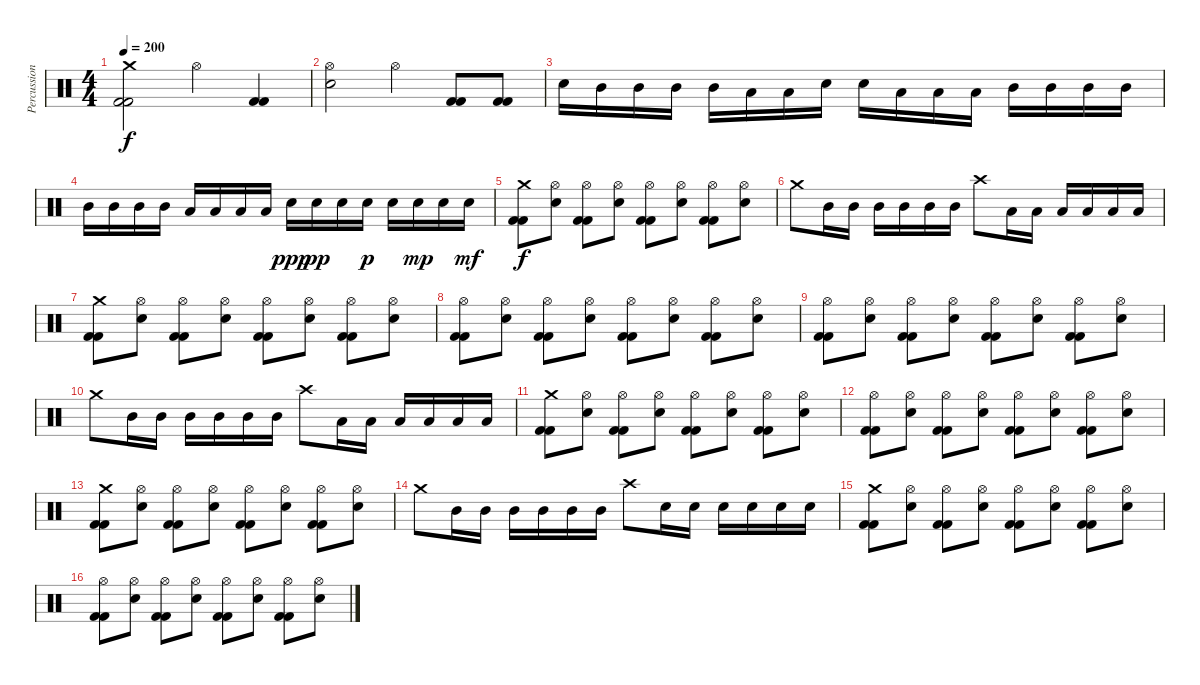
\track ("Percussion" "Percussion") {instrument percussion}
\staff {score}
\articulation defaults
\ts (4 4)
\tempo 200
\clef neutral
\ks c
("Crash medium (hit)" "Kick (hit) 2" "Kick (hit) 2").2{dy f} "Hi-Hat (open)".4 ("Kick (hit) 2" "Kick (hit) 2").4 |
("Hi-Hat (open)" "Electric Snare (hit)").2 "Hi-Hat (open)".4 ("Kick (hit) 2" "Kick (hit) 2").8 ("Kick (hit) 2" "Kick (hit) 2").8 |
"Electric Snare (hit)".16 "Mid Tom (hit)".16 "Mid Tom (hit)".16 "Mid Tom (hit)".16 "Mid Tom (hit)".16 "Low Tom (hit)".16 "Low Tom (hit)".16 "Electric Snare (hit)".16 "Electric Snare (hit)".16 "Low Tom (hit)".16 "Low Tom (hit)".16 "Low Tom (hit)".16 "Mid Tom (hit)".16 "Mid Tom (hit)".16 "Mid Tom (hit)".16 "Mid Tom (hit)".16 |
"Mid Tom (hit)".16 "Mid Tom (hit)".16 "Mid Tom (hit)".16 "Mid Tom (hit)".16 "Low Tom (hit)".16 "Low Tom (hit)".16 "Low Tom (hit)".16 "Low Tom (hit)".16 "Electric Snare (hit)".16{dy ppp} "Electric Snare (hit)".16{dy pp} "Electric Snare (hit)".16 "Electric Snare (hit)".16{dy p} "Electric Snare (hit)".16 "Electric Snare (hit)".16{dy mp} "Electric Snare (hit)".16 "Electric Snare (hit)".16{dy mf} |
("Crash medium (hit)" "Kick (hit) 2" "Kick (hit) 2").8{dy f} ("Electric Snare (hit)" "Hi-Hat (open)").8 ("Hi-Hat (open)" "Kick (hit) 2" "Kick (hit) 2").8 ("Electric Snare (hit)" "Hi-Hat (open)").8 ("Hi-Hat (open)" "Kick (hit) 2" "Kick (hit) 2").8 ("Electric Snare (hit)" "Hi-Hat (open)").8 ("Hi-Hat (open)" "Kick (hit) 2" "Kick (hit) 2").8 ("Electric Snare (hit)" "Hi-Hat (open)").8 |
"Crash medium (hit)".8 "Mid Tom (hit)".16 "Mid Tom (hit)".16 "Mid Tom (hit)".16 "Mid Tom (hit)".16 "Mid Tom (hit)".16 "Mid Tom (hit)".16 "Crash high (hit)".8 "Low Tom (hit)".16 "Low Tom (hit)".16 "Low Tom (hit)".16 "Low Tom (hit)".16 "Low Tom (hit)".16 "Low Tom (hit)".16 |
("Crash medium (hit)" "Kick (hit) 2" "Kick (hit) 2").8 ("Electric Snare (hit)" "Hi-Hat (open)").8 ("Hi-Hat (open)" "Kick (hit) 2" "Kick (hit) 2").8 ("Electric Snare (hit)" "Hi-Hat (open)").8 ("Hi-Hat (open)" "Kick (hit) 2" "Kick (hit) 2").8 ("Electric Snare (hit)" "Hi-Hat (open)").8 ("Hi-Hat (open)" "Kick (hit) 2" "Kick (hit) 2").8 ("Electric Snare (hit)" "Hi-Hat (open)").8 |
("Hi-Hat (open)" "Kick (hit) 2" "Kick (hit) 2").8 ("Electric Snare (hit)" "Hi-Hat (open)").8 ("Hi-Hat (open)" "Kick (hit) 2" "Kick (hit) 2").8 ("Electric Snare (hit)" "Hi-Hat (open)").8 ("Hi-Hat (open)" "Kick (hit) 2" "Kick (hit) 2").8 ("Electric Snare (hit)" "Hi-Hat (open)").8 ("Hi-Hat (open)" "Kick (hit) 2" "Kick (hit) 2").8 ("Electric Snare (hit)" "Hi-Hat (open)").8 |
("Hi-Hat (open)" "Kick (hit) 2" "Kick (hit) 2").8 ("Electric Snare (hit)" "Hi-Hat (open)").8 ("Hi-Hat (open)" "Kick (hit) 2" "Kick (hit) 2").8 ("Electric Snare (hit)" "Hi-Hat (open)").8 ("Hi-Hat (open)" "Kick (hit) 2" "Kick (hit) 2").8 ("Electric Snare (hit)" "Hi-Hat (open)").8 ("Hi-Hat (open)" "Kick (hit) 2" "Kick (hit) 2").8 ("Electric Snare (hit)" "Hi-Hat (open)").8 |
"Crash medium (hit)".8 "Mid Tom (hit)".16 "Mid Tom (hit)".16 "Mid Tom (hit)".16 "Mid Tom (hit)".16 "Mid Tom (hit)".16 "Mid Tom (hit)".16 "Crash high (hit)".8 "Low Tom (hit)".16 "Low Tom (hit)".16 "Low Tom (hit)".16 "Low Tom (hit)".16 "Low Tom (hit)".16 "Low Tom (hit)".16 |
("Crash medium (hit)" "Kick (hit) 2" "Kick (hit) 2").8 ("Electric Snare (hit)" "Hi-Hat (open)").8 ("Hi-Hat (open)" "Kick (hit) 2" "Kick (hit) 2").8 ("Electric Snare (hit)" "Hi-Hat (open)").8 ("Hi-Hat (open)" "Kick (hit) 2" "Kick (hit) 2").8 ("Electric Snare (hit)" "Hi-Hat (open)").8 ("Hi-Hat (open)" "Kick (hit) 2" "Kick (hit) 2").8 ("Electric Snare (hit)" "Hi-Hat (open)").8 |
("Hi-Hat (open)" "Kick (hit) 2" "Kick (hit) 2").8 ("Hi-Hat (open)" "Electric Snare (hit)").8 ("Hi-Hat (open)" "Kick (hit) 2" "Kick (hit) 2").8 ("Hi-Hat (open)" "Electric Snare (hit)").8 ("Hi-Hat (open)" "Kick (hit) 2" "Kick (hit) 2").8 ("Hi-Hat (open)" "Electric Snare (hit)").8 ("Hi-Hat (open)" "Kick (hit) 2" "Kick (hit) 2").8 ("Hi-Hat (open)" "Electric Snare (hit)").8 |
("Crash medium (hit)" "Kick (hit) 2" "Kick (hit) 2").8 ("Electric Snare (hit)" "Hi-Hat (open)").8 ("Hi-Hat (open)" "Kick (hit) 2" "Kick (hit) 2").8 ("Electric Snare (hit)" "Hi-Hat (open)").8 ("Hi-Hat (open)" "Kick (hit) 2" "Kick (hit) 2").8 ("Electric Snare (hit)" "Hi-Hat (open)").8 ("Hi-Hat (open)" "Kick (hit) 2" "Kick (hit) 2").8 ("Electric Snare (hit)" "Hi-Hat (open)").8 |
"Crash medium (hit)".8 "Mid Tom (hit)".16 "Mid Tom (hit)".16 "Mid Tom (hit)".16 "Mid Tom (hit)".16 "Mid Tom (hit)".16 "Mid Tom (hit)".16 "Crash high (hit)".8 "Electric Snare (hit)".16 "Electric Snare (hit)".16 "Electric Snare (hit)".16 "Electric Snare (hit)".16 "Electric Snare (hit)".16 "Electric Snare (hit)".16 |
("Crash medium (hit)" "Kick (hit) 2" "Kick (hit) 2").8 ("Electric Snare (hit)" "Hi-Hat (open)").8 ("Hi-Hat (open)" "Kick (hit) 2" "Kick (hit) 2").8 ("Electric Snare (hit)" "Hi-Hat (open)").8 ("Hi-Hat (open)" "Kick (hit) 2" "Kick (hit) 2").8 ("Electric Snare (hit)" "Hi-Hat (open)").8 ("Hi-Hat (open)" "Kick (hit) 2" "Kick (hit) 2").8 ("Electric Snare (hit)" "Hi-Hat (open)").8 |
("Hi-Hat (open)" "Kick (hit) 2" "Kick (hit) 2").8 ("Electric Snare (hit)" "Hi-Hat (open)").8 ("Hi-Hat (open)" "Kick (hit) 2" "Kick (hit) 2").8 ("Electric Snare (hit)" "Hi-Hat (open)").8 ("Hi-Hat (open)" "Kick (hit) 2" "Kick (hit) 2").8 ("Electric Snare (hit)" "Hi-Hat (open)").8 ("Hi-Hat (open)" "Kick (hit) 2" "Kick (hit) 2").8 ("Electric Snare (hit)" "Hi-Hat (open)").8
